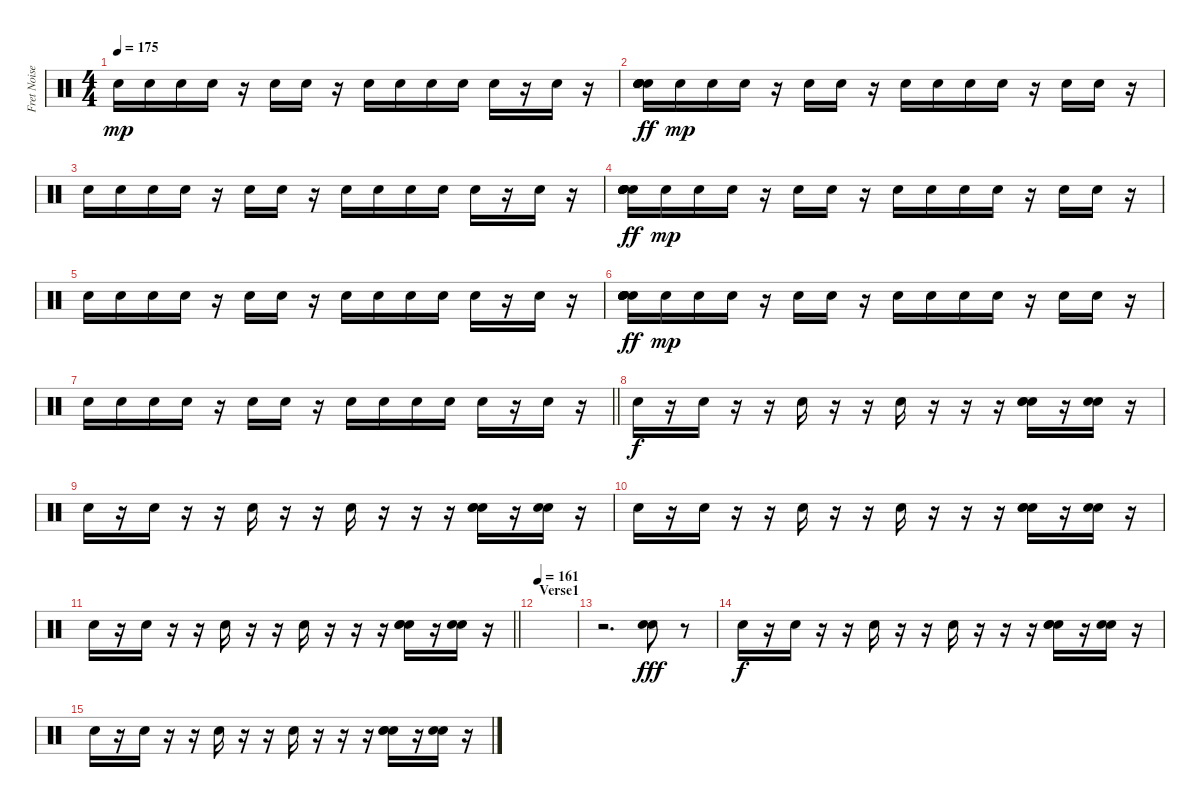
\track ("Fret Noise / Percussion(corpus)" "Fret Noise") {instrument percussion}
\staff {score}
\articulation defaults
\ts (4 4)
\tempo 175
\clef neutral
\ks c "Snare (hit) 2".16{dy mp} "Snare (hit) 2".16 "Snare (hit) 2".16 "Snare (hit) 2".16
r.16 "Snare (hit) 2".16 "Snare (hit) 2".16 r.16 "Snare (hit) 2".16 "Snare (hit) 2".16 "Snare (hit) 2".16 "Snare (hit) 2".16 "Snare (hit) 2".16 r.16 "Snare (hit) 2".16 r.16 |
("Snare (hit) 2" "Snare (hit) 2" "Snare (hit) 2" "Snare (hit) 2" "Snare (hit) 2" "Snare (hit) 2").16{dy ff} "Snare (hit) 2".16{dy mp} "Snare (hit) 2".16 "Snare (hit) 2".16 r.16 "Snare (hit) 2".16 "Snare (hit) 2".16 r.16 "Snare (hit) 2".16 "Snare (hit) 2".16 "Snare (hit) 2".16 "Snare (hit) 2".16 r.16 "Snare (hit) 2".16 "Snare (hit) 2".16 r.16 |
"Snare (hit) 2".16 "Snare (hit) 2".16 "Snare (hit) 2".16 "Snare (hit) 2".16 r.16 "Snare (hit) 2".16 "Snare (hit) 2".16 r.16 "Snare (hit) 2".16 "Snare (hit) 2".16 "Snare (hit) 2".16 "Snare (hit) 2".16 "Snare (hit) 2".16 r.16 "Snare (hit) 2".16 r.16 |
("Snare (hit) 2" "Snare (hit) 2" "Snare (hit) 2" "Snare (hit) 2" "Snare (hit) 2" "Snare (hit) 2").16{dy ff} "Snare (hit) 2".16{dy mp} "Snare (hit) 2".16 "Snare (hit) 2".16 r.16 "Snare (hit) 2".16 "Snare (hit) 2".16 r.16 "Snare (hit) 2".16 "Snare (hit) 2".16 "Snare (hit) 2".16 "Snare (hit) 2".16 r.16 "Snare (hit) 2".16 "Snare (hit) 2".16 r.16 |
"Snare (hit) 2".16 "Snare (hit) 2".16 "Snare (hit) 2".16 "Snare (hit) 2".16 r.16 "Snare (hit) 2".16 "Snare (hit) 2".16 r.16 "Snare (hit) 2".16 "Snare (hit) 2".16 "Snare (hit) 2".16 "Snare (hit) 2".16 "Snare (hit) 2".16 r.16 "Snare (hit) 2".16 r.16 |
("Snare (hit) 2" "Snare (hit) 2" "Snare (hit) 2" "Snare (hit) 2" "Snare (hit) 2" "Snare (hit) 2").16{dy ff} "Snare (hit) 2".16{dy mp} "Snare (hit) 2".16 "Snare (hit) 2".16 r.16 "Snare (hit) 2".16 "Snare (hit) 2".16 r.16 "Snare (hit) 2".16 "Snare (hit) 2".16 "Snare (hit) 2".16 "Snare (hit) 2".16 r.16 "Snare (hit) 2".16 "Snare (hit) 2".16 r.16 |
\barLineRight lightlight "Snare (hit) 2".16 "Snare (hit) 2".16 "Snare (hit) 2".16 "Snare (hit) 2".16
r.16 "Snare (hit) 2".16 "Snare (hit) 2".16 r.16 "Snare (hit) 2".16 "Snare (hit) 2".16 "Snare (hit) 2".16 "Snare (hit) 2".16 "Snare (hit) 2".16 r.16 "Snare (hit) 2".16 r.16 |
"Snare (hit) 2".16{dy f} r.16 "Snare (hit) 2".16 r.16 r.16 "Snare (hit) 2".16 r.16 r.16 "Snare (hit) 2".16 r.16 r.16 r.16 ("Snare (hit) 2" "Snare (hit) 2" "Snare (hit) 2").16 r.16 ("Snare (hit) 2" "Snare (hit) 2").16 r.16 |
"Snare (hit) 2".16 r.16 "Snare (hit) 2".16 r.16 r.16 "Snare (hit) 2".16 r.16 r.16 "Snare (hit) 2".16 r.16 r.16 r.16 ("Snare (hit) 2" "Snare (hit) 2" "Snare (hit) 2").16 r.16 ("Snare (hit) 2" "Snare (hit) 2").16 r.16 |
"Snare (hit) 2".16 r.16 "Snare (hit) 2".16 r.16 r.16 "Snare (hit) 2".16 r.16 r.16 "Snare (hit) 2".16 r.16 r.16 r.16 ("Snare (hit) 2" "Snare (hit) 2" "Snare (hit) 2").16 r.16 ("Snare (hit) 2" "Snare (hit) 2").16 r.16 |
\barLineRight lightlight "Snare (hit) 2".16
r.16 "Snare (hit) 2".16 r.16 r.16 "Snare (hit) 2".16 r.16 r.16 "Snare (hit) 2".16 r.16 r.16 r.16 ("Snare (hit) 2" "Snare (hit) 2" "Snare (hit) 2").16 r.16 ("Snare (hit) 2" "Snare (hit) 2").16 r.16 |
\section ("" "Verse1")
\tempo 161
|
r.2{d} ("Snare (hit) 2" "Snare (hit) 2").8{dy fff} r.8 |
"Snare (hit) 2".16{dy f} r.16 "Snare (hit) 2".16 r.16 r.16 "Snare (hit) 2".16 r.16 r.16 "Snare (hit) 2".16 r.16 r.16 r.16 ("Snare (hit) 2" "Snare (hit) 2" "Snare (hit) 2").16 r.16 ("Snare (hit) 2" "Snare (hit) 2").16 r.16 |
"Snare (hit) 2".16 r.16 "Snare (hit) 2".16 r.16 r.16 "Snare (hit) 2".16 r.16 r.16 "Snare (hit) 2".16 r.16 r.16 r.16 ("Snare (hit) 2" "Snare (hit) 2" "Snare (hit) 2").16 r.16 ("Snare (hit) 2" "Snare (hit) 2").16 r.16
